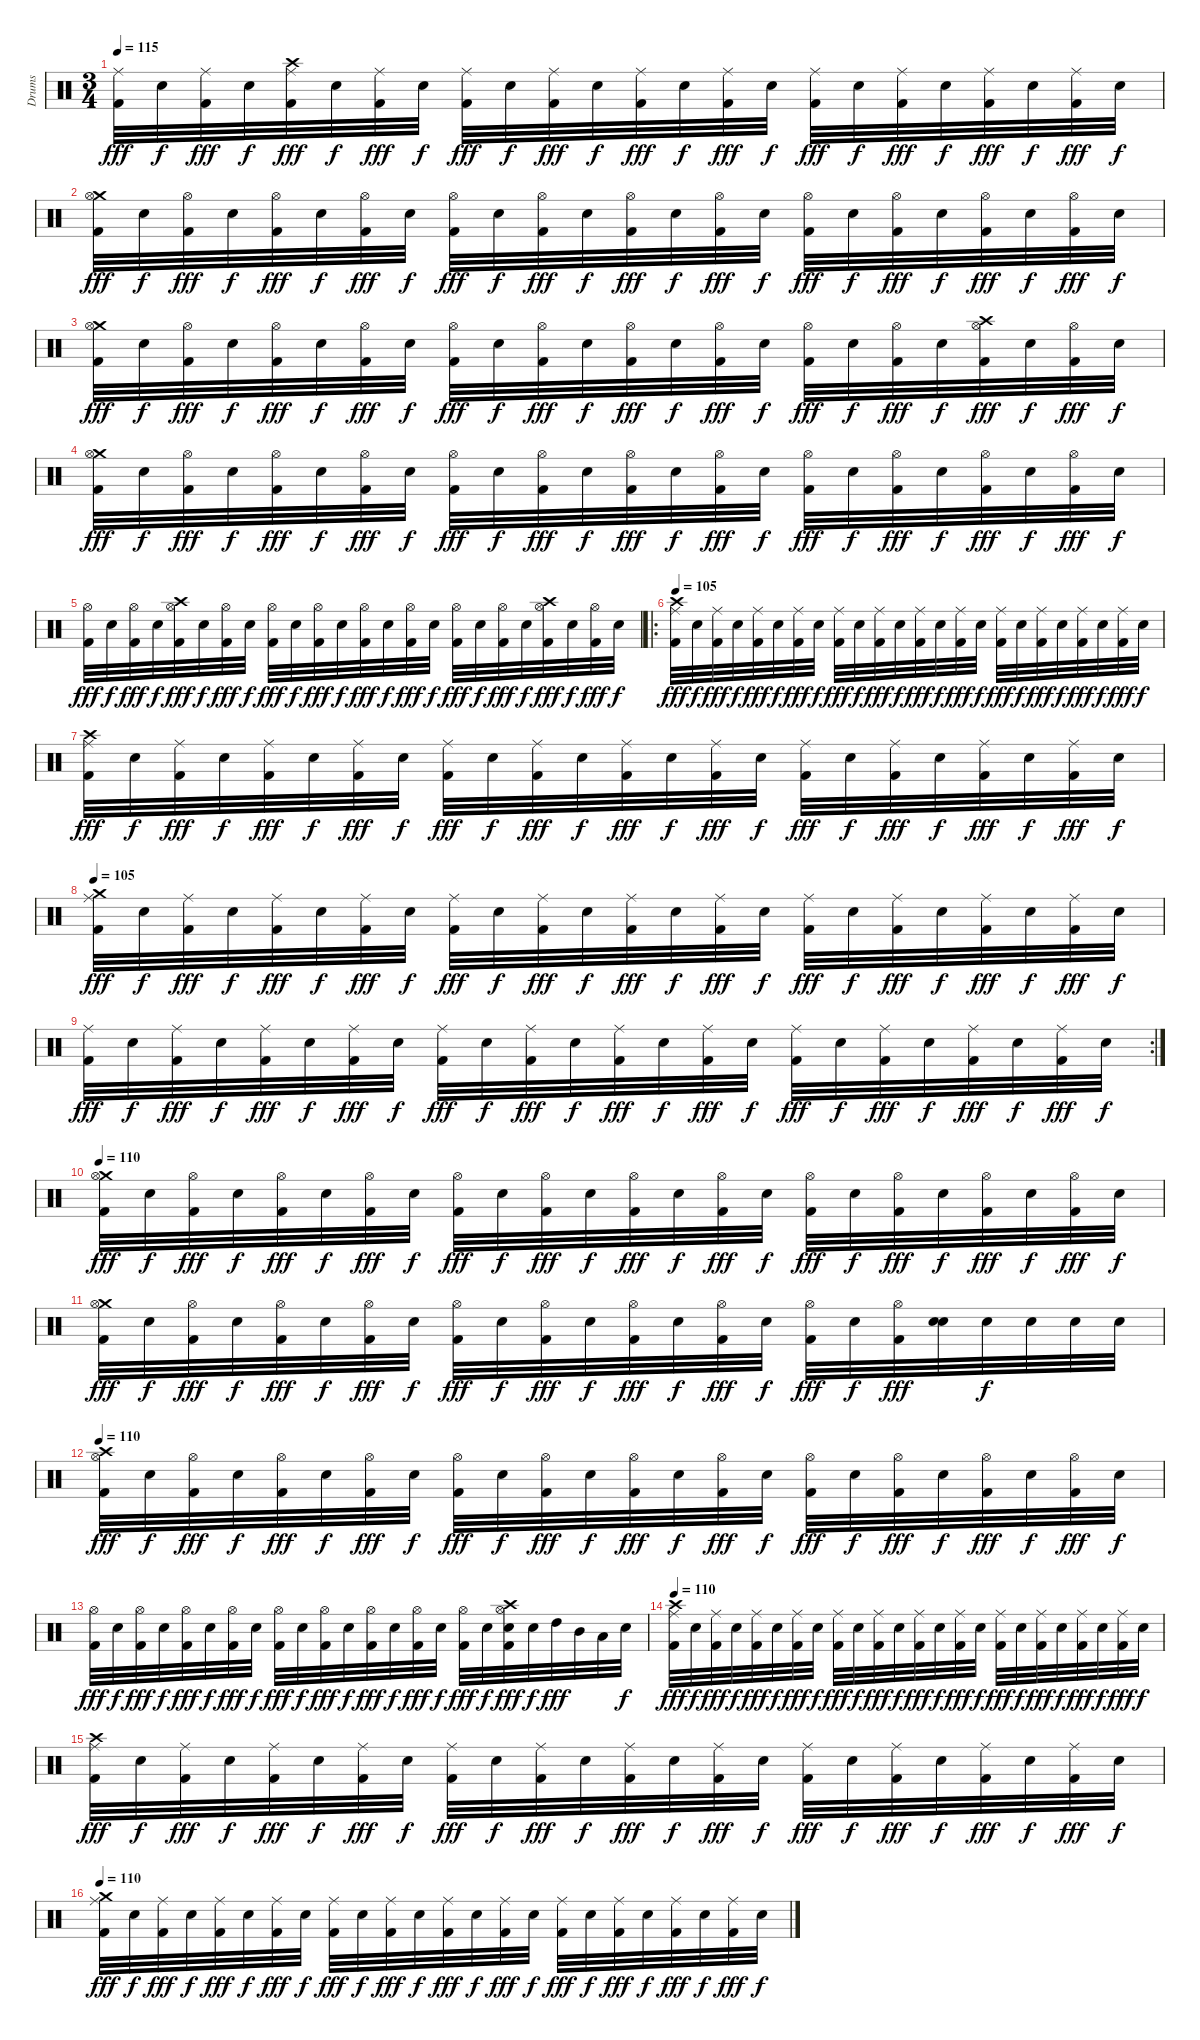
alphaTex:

\track ("Drums" "Drums") {instrument percussion}
\staff {score}
\articulation defaults
\ts (3 4)
\tempo 115
\clef neutral
\ks c
("Ride (middle)" "Kick (hit) 2").32{dy fff} "Electric Snare (hit)".32{dy f} ("Ride (middle)" "Kick (hit) 2").32{dy fff} "Electric Snare (hit)".32{dy f} ("Crash high (hit)" "Ride (middle)" "Kick (hit) 2").32{dy fff} "Electric Snare (hit)".32{dy f} ("Ride (middle)" "Kick (hit) 2").32{dy fff} "Electric Snare (hit)".32{dy f} ("Ride (middle)" "Kick (hit) 2").32{dy fff} "Electric Snare (hit)".32{dy f} ("Ride (middle)" "Kick (hit) 2").32{dy fff} "Electric Snare (hit)".32{dy f} ("Ride (middle)" "Kick (hit) 2").32{dy fff} "Electric Snare (hit)".32{dy f} ("Ride (middle)" "Kick (hit) 2").32{dy fff} "Electric Snare (hit)".32{dy f} ("Ride (middle)" "Kick (hit) 2").32{dy fff} "Electric Snare (hit)".32{dy f} ("Ride (middle)" "Kick (hit) 2").32{dy fff} "Electric Snare (hit)".32{dy f} ("Ride (middle)" "Kick (hit) 2").32{dy fff} "Electric Snare (hit)".32{dy f} ("Ride (middle)" "Kick (hit) 2").32{dy fff} "Electric Snare (hit)".32{dy f} |
("Crash medium (hit)" "Hi-Hat (open)" "Kick (hit) 2").32{dy fff} "Electric Snare (hit)".32{dy f} ("Hi-Hat (open)" "Kick (hit) 2").32{dy fff} "Electric Snare (hit)".32{dy f} ("Hi-Hat (open)" "Kick (hit) 2").32{dy fff} "Electric Snare (hit)".32{dy f} ("Hi-Hat (open)" "Kick (hit) 2").32{dy fff} "Electric Snare (hit)".32{dy f} ("Hi-Hat (open)" "Kick (hit) 2").32{dy fff} "Electric Snare (hit)".32{dy f} ("Hi-Hat (open)" "Kick (hit) 2").32{dy fff} "Electric Snare (hit)".32{dy f} ("Hi-Hat (open)" "Kick (hit) 2").32{dy fff} "Electric Snare (hit)".32{dy f} ("Hi-Hat (open)" "Kick (hit) 2").32{dy fff} "Electric Snare (hit)".32{dy f} ("Hi-Hat (open)" "Kick (hit) 2").32{dy fff} "Electric Snare (hit)".32{dy f} ("Hi-Hat (open)" "Kick (hit) 2").32{dy fff} "Electric Snare (hit)".32{dy f} ("Hi-Hat (open)" "Kick (hit) 2").32{dy fff} "Electric Snare (hit)".32{dy f} ("Hi-Hat (open)" "Kick (hit) 2").32{dy fff} "Electric Snare (hit)".32{dy f} |
("Crash medium (hit)" "Hi-Hat (open)" "Kick (hit) 2").32{dy fff} "Electric Snare (hit)".32{dy f} ("Hi-Hat (open)" "Kick (hit) 2").32{dy fff} "Electric Snare (hit)".32{dy f} ("Hi-Hat (open)" "Kick (hit) 2").32{dy fff} "Electric Snare (hit)".32{dy f} ("Hi-Hat (open)" "Kick (hit) 2").32{dy fff} "Electric Snare (hit)".32{dy f} ("Hi-Hat (open)" "Kick (hit) 2").32{dy fff} "Electric Snare (hit)".32{dy f} ("Hi-Hat (open)" "Kick (hit) 2").32{dy fff} "Electric Snare (hit)".32{dy f} ("Hi-Hat (open)" "Kick (hit) 2").32{dy fff} "Electric Snare (hit)".32{dy f} ("Hi-Hat (open)" "Kick (hit) 2").32{dy fff} "Electric Snare (hit)".32{dy f} ("Hi-Hat (open)" "Kick (hit) 2").32{dy fff} "Electric Snare (hit)".32{dy f} ("Hi-Hat (open)" "Kick (hit) 2").32{dy fff} "Electric Snare (hit)".32{dy f} ("Crash high (hit)" "Hi-Hat (open)" "Kick (hit) 2").32{dy fff} "Electric Snare (hit)".32{dy f} ("Hi-Hat (open)" "Kick (hit) 2").32{dy fff} "Electric Snare (hit)".32{dy f} |
("Crash medium (hit)" "Hi-Hat (open)" "Kick (hit) 2").32{dy fff} "Electric Snare (hit)".32{dy f} ("Hi-Hat (open)" "Kick (hit) 2").32{dy fff} "Electric Snare (hit)".32{dy f} ("Hi-Hat (open)" "Kick (hit) 2").32{dy fff} "Electric Snare (hit)".32{dy f} ("Hi-Hat (open)" "Kick (hit) 2").32{dy fff} "Electric Snare (hit)".32{dy f} ("Hi-Hat (open)" "Kick (hit) 2").32{dy fff} "Electric Snare (hit)".32{dy f} ("Hi-Hat (open)" "Kick (hit) 2").32{dy fff} "Electric Snare (hit)".32{dy f} ("Hi-Hat (open)" "Kick (hit) 2").32{dy fff} "Electric Snare (hit)".32{dy f} ("Hi-Hat (open)" "Kick (hit) 2").32{dy fff} "Electric Snare (hit)".32{dy f} ("Hi-Hat (open)" "Kick (hit) 2").32{dy fff} "Electric Snare (hit)".32{dy f} ("Hi-Hat (open)" "Kick (hit) 2").32{dy fff} "Electric Snare (hit)".32{dy f} ("Hi-Hat (open)" "Kick (hit) 2").32{dy fff} "Electric Snare (hit)".32{dy f} ("Hi-Hat (open)" "Kick (hit) 2").32{dy fff} "Electric Snare (hit)".32{dy f} |
("Hi-Hat (open)" "Kick (hit) 2").32{dy fff} "Electric Snare (hit)".32{dy f} ("Hi-Hat (open)" "Kick (hit) 2").32{dy fff} "Electric Snare (hit)".32{dy f} ("Crash high (hit)" "Hi-Hat (open)" "Kick (hit) 2").32{dy fff} "Electric Snare (hit)".32{dy f} ("Hi-Hat (open)" "Kick (hit) 2").32{dy fff} "Electric Snare (hit)".32{dy f} ("Hi-Hat (open)" "Kick (hit) 2").32{dy fff} "Electric Snare (hit)".32{dy f} ("Hi-Hat (open)" "Kick (hit) 2").32{dy fff} "Electric Snare (hit)".32{dy f} ("Hi-Hat (open)" "Kick (hit) 2").32{dy fff} "Electric Snare (hit)".32{dy f} ("Hi-Hat (open)" "Kick (hit) 2").32{dy fff} "Electric Snare (hit)".32{dy f} ("Hi-Hat (open)" "Kick (hit) 2").32{dy fff} "Electric Snare (hit)".32{dy f} ("Hi-Hat (open)" "Kick (hit) 2").32{dy fff} "Electric Snare (hit)".32{dy f} ("Crash high (hit)" "Hi-Hat (open)" "Kick (hit) 2").32{dy fff} "Electric Snare (hit)".32{dy f} ("Hi-Hat (open)" "Kick (hit) 2").32{dy fff} "Electric Snare (hit)".32{dy f} |
\ro
\tempo 105
("Crash high (hit)" "Ride (middle)" "Kick (hit) 2").32{dy fff} "Electric Snare (hit)".32{dy f} ("Ride (middle)" "Kick (hit) 2").32{dy fff} "Electric Snare (hit)".32{dy f} ("Ride (middle)" "Kick (hit) 2").32{dy fff} "Electric Snare (hit)".32{dy f} ("Ride (middle)" "Kick (hit) 2").32{dy fff} "Electric Snare (hit)".32{dy f} ("Ride (middle)" "Kick (hit) 2").32{dy fff} "Electric Snare (hit)".32{dy f} ("Ride (middle)" "Kick (hit) 2").32{dy fff} "Electric Snare (hit)".32{dy f} ("Ride (middle)" "Kick (hit) 2").32{dy fff} "Electric Snare (hit)".32{dy f} ("Ride (middle)" "Kick (hit) 2").32{dy fff} "Electric Snare (hit)".32{dy f} ("Ride (middle)" "Kick (hit) 2").32{dy fff} "Electric Snare (hit)".32{dy f} ("Ride (middle)" "Kick (hit) 2").32{dy fff} "Electric Snare (hit)".32{dy f} ("Ride (middle)" "Kick (hit) 2").32{dy fff} "Electric Snare (hit)".32{dy f} ("Ride (middle)" "Kick (hit) 2").32{dy fff} "Electric Snare (hit)".32{dy f} |
("Crash high (hit)" "Ride (middle)" "Kick (hit) 2").32{dy fff} "Electric Snare (hit)".32{dy f} ("Ride (middle)" "Kick (hit) 2").32{dy fff} "Electric Snare (hit)".32{dy f} ("Ride (middle)" "Kick (hit) 2").32{dy fff} "Electric Snare (hit)".32{dy f} ("Ride (middle)" "Kick (hit) 2").32{dy fff} "Electric Snare (hit)".32{dy f} ("Ride (middle)" "Kick (hit) 2").32{dy fff} "Electric Snare (hit)".32{dy f} ("Ride (middle)" "Kick (hit) 2").32{dy fff} "Electric Snare (hit)".32{dy f} ("Ride (middle)" "Kick (hit) 2").32{dy fff} "Electric Snare (hit)".32{dy f} ("Ride (middle)" "Kick (hit) 2").32{dy fff} "Electric Snare (hit)".32{dy f} ("Ride (middle)" "Kick (hit) 2").32{dy fff} "Electric Snare (hit)".32{dy f} ("Ride (middle)" "Kick (hit) 2").32{dy fff} "Electric Snare (hit)".32{dy f} ("Ride (middle)" "Kick (hit) 2").32{dy fff} "Electric Snare (hit)".32{dy f} ("Ride (middle)" "Kick (hit) 2").32{dy fff} "Electric Snare (hit)".32{dy f} |
\tempo 105
("Crash medium (hit)" "Ride (middle)" "Kick (hit) 2").32{dy fff} "Electric Snare (hit)".32{dy f} ("Ride (middle)" "Kick (hit) 2").32{dy fff} "Electric Snare (hit)".32{dy f} ("Ride (middle)" "Kick (hit) 2").32{dy fff} "Electric Snare (hit)".32{dy f} ("Ride (middle)" "Kick (hit) 2").32{dy fff} "Electric Snare (hit)".32{dy f} ("Ride (middle)" "Kick (hit) 2").32{dy fff} "Electric Snare (hit)".32{dy f} ("Ride (middle)" "Kick (hit) 2").32{dy fff} "Electric Snare (hit)".32{dy f} ("Ride (middle)" "Kick (hit) 2").32{dy fff} "Electric Snare (hit)".32{dy f} ("Ride (middle)" "Kick (hit) 2").32{dy fff} "Electric Snare (hit)".32{dy f} ("Ride (middle)" "Kick (hit) 2").32{dy fff} "Electric Snare (hit)".32{dy f} ("Ride (middle)" "Kick (hit) 2").32{dy fff} "Electric Snare (hit)".32{dy f} ("Ride (middle)" "Kick (hit) 2").32{dy fff} "Electric Snare (hit)".32{dy f} ("Ride (middle)" "Kick (hit) 2").32{dy fff} "Electric Snare (hit)".32{dy f} |
\rc 2
("Ride (middle)" "Kick (hit) 2").32{dy fff} "Electric Snare (hit)".32{dy f} ("Ride (middle)" "Kick (hit) 2").32{dy fff} "Electric Snare (hit)".32{dy f} ("Ride (middle)" "Kick (hit) 2").32{dy fff} "Electric Snare (hit)".32{dy f} ("Ride (middle)" "Kick (hit) 2").32{dy fff} "Electric Snare (hit)".32{dy f} ("Ride (middle)" "Kick (hit) 2").32{dy fff} "Electric Snare (hit)".32{dy f} ("Ride (middle)" "Kick (hit) 2").32{dy fff} "Electric Snare (hit)".32{dy f} ("Ride (middle)" "Kick (hit) 2").32{dy fff} "Electric Snare (hit)".32{dy f} ("Ride (middle)" "Kick (hit) 2").32{dy fff} "Electric Snare (hit)".32{dy f} ("Ride (middle)" "Kick (hit) 2").32{dy fff} "Electric Snare (hit)".32{dy f} ("Ride (middle)" "Kick (hit) 2").32{dy fff} "Electric Snare (hit)".32{dy f} ("Ride (middle)" "Kick (hit) 2").32{dy fff} "Electric Snare (hit)".32{dy f} ("Ride (middle)" "Kick (hit) 2").32{dy fff} "Electric Snare (hit)".32{dy f} |
\tempo 110
("Crash medium (hit)" "Hi-Hat (open)" "Kick (hit) 2").32{dy fff} "Electric Snare (hit)".32{dy f} ("Hi-Hat (open)" "Kick (hit) 2").32{dy fff} "Electric Snare (hit)".32{dy f} ("Hi-Hat (open)" "Kick (hit) 2").32{dy fff} "Electric Snare (hit)".32{dy f} ("Hi-Hat (open)" "Kick (hit) 2").32{dy fff} "Electric Snare (hit)".32{dy f} ("Hi-Hat (open)" "Kick (hit) 2").32{dy fff} "Electric Snare (hit)".32{dy f} ("Hi-Hat (open)" "Kick (hit) 2").32{dy fff} "Electric Snare (hit)".32{dy f} ("Hi-Hat (open)" "Kick (hit) 2").32{dy fff} "Electric Snare (hit)".32{dy f} ("Hi-Hat (open)" "Kick (hit) 2").32{dy fff} "Electric Snare (hit)".32{dy f} ("Hi-Hat (open)" "Kick (hit) 2").32{dy fff} "Electric Snare (hit)".32{dy f} ("Hi-Hat (open)" "Kick (hit) 2").32{dy fff} "Electric Snare (hit)".32{dy f} ("Hi-Hat (open)" "Kick (hit) 2").32{dy fff} "Electric Snare (hit)".32{dy f} ("Hi-Hat (open)" "Kick (hit) 2").32{dy fff} "Electric Snare (hit)".32{dy f} |
("Crash medium (hit)" "Hi-Hat (open)" "Kick (hit) 2").32{dy fff} "Electric Snare (hit)".32{dy f} ("Hi-Hat (open)" "Kick (hit) 2").32{dy fff} "Electric Snare (hit)".32{dy f} ("Hi-Hat (open)" "Kick (hit) 2").32{dy fff} "Electric Snare (hit)".32{dy f} ("Hi-Hat (open)" "Kick (hit) 2").32{dy fff} "Electric Snare (hit)".32{dy f} ("Hi-Hat (open)" "Kick (hit) 2").32{dy fff} "Electric Snare (hit)".32{dy f} ("Hi-Hat (open)" "Kick (hit) 2").32{dy fff} "Electric Snare (hit)".32{dy f} ("Hi-Hat (open)" "Kick (hit) 2").32{dy fff} "Electric Snare (hit)".32{dy f} ("Hi-Hat (open)" "Kick (hit) 2").32{dy fff} "Electric Snare (hit)".32{dy f} ("Hi-Hat (open)" "Kick (hit) 2").32{dy fff} "Electric Snare (hit)".32{dy f} ("Hi-Hat (open)" "Kick (hit) 2").32{dy fff} ("Electric Snare (hit)" "Electric Snare (hit)").32 "Electric Snare (hit)".32{dy f} "Electric Snare (hit)".32 "Electric Snare (hit)".32 "Electric Snare (hit)".32 |
\tempo 110
("Crash high (hit)" "Hi-Hat (open)" "Kick (hit) 2").32{dy fff} "Electric Snare (hit)".32{dy f} ("Hi-Hat (open)" "Kick (hit) 2").32{dy fff} "Electric Snare (hit)".32{dy f} ("Hi-Hat (open)" "Kick (hit) 2").32{dy fff} "Electric Snare (hit)".32{dy f} ("Hi-Hat (open)" "Kick (hit) 2").32{dy fff} "Electric Snare (hit)".32{dy f} ("Hi-Hat (open)" "Kick (hit) 2").32{dy fff} "Electric Snare (hit)".32{dy f} ("Hi-Hat (open)" "Kick (hit) 2").32{dy fff} "Electric Snare (hit)".32{dy f} ("Hi-Hat (open)" "Kick (hit) 2").32{dy fff} "Electric Snare (hit)".32{dy f} ("Hi-Hat (open)" "Kick (hit) 2").32{dy fff} "Electric Snare (hit)".32{dy f} ("Hi-Hat (open)" "Kick (hit) 2").32{dy fff} "Electric Snare (hit)".32{dy f} ("Hi-Hat (open)" "Kick (hit) 2").32{dy fff} "Electric Snare (hit)".32{dy f} ("Hi-Hat (open)" "Kick (hit) 2").32{dy fff} "Electric Snare (hit)".32{dy f} ("Hi-Hat (open)" "Kick (hit) 2").32{dy fff} "Electric Snare (hit)".32{dy f} |
("Hi-Hat (open)" "Kick (hit) 2").32{dy fff} "Electric Snare (hit)".32{dy f} ("Hi-Hat (open)" "Kick (hit) 2").32{dy fff} "Electric Snare (hit)".32{dy f} ("Hi-Hat (open)" "Kick (hit) 2").32{dy fff} "Electric Snare (hit)".32{dy f} ("Hi-Hat (open)" "Kick (hit) 2").32{dy fff} "Electric Snare (hit)".32{dy f} ("Hi-Hat (open)" "Kick (hit) 2").32{dy fff} "Electric Snare (hit)".32{dy f} ("Hi-Hat (open)" "Kick (hit) 2").32{dy fff} "Electric Snare (hit)".32{dy f} ("Hi-Hat (open)" "Kick (hit) 2").32{dy fff} "Electric Snare (hit)".32{dy f} ("Hi-Hat (open)" "Kick (hit) 2").32{dy fff} "Electric Snare (hit)".32{dy f} ("Hi-Hat (open)" "Kick (hit) 2").32{dy fff} "Electric Snare (hit)".32{dy f} ("Crash high (hit)" "Hi-Hat (open)" "Electric Snare (hit)" "Kick (hit) 2").32{dy fff} "Electric Snare (hit)".32{dy f} "High Tom (hit)".32{dy fff} "Mid Tom (hit)".32 "Low Tom (hit)".32 "Electric Snare (hit)".32{dy f} |
\tempo 110
("Crash high (hit)" "Ride (middle)" "Kick (hit) 2").32{dy fff} "Electric Snare (hit)".32{dy f} ("Ride (middle)" "Kick (hit) 2").32{dy fff} "Electric Snare (hit)".32{dy f} ("Ride (middle)" "Kick (hit) 2").32{dy fff} "Electric Snare (hit)".32{dy f} ("Ride (middle)" "Kick (hit) 2").32{dy fff} "Electric Snare (hit)".32{dy f} ("Ride (middle)" "Kick (hit) 2").32{dy fff} "Electric Snare (hit)".32{dy f} ("Ride (middle)" "Kick (hit) 2").32{dy fff} "Electric Snare (hit)".32{dy f} ("Ride (middle)" "Kick (hit) 2").32{dy fff} "Electric Snare (hit)".32{dy f} ("Ride (middle)" "Kick (hit) 2").32{dy fff} "Electric Snare (hit)".32{dy f} ("Ride (middle)" "Kick (hit) 2").32{dy fff} "Electric Snare (hit)".32{dy f} ("Ride (middle)" "Kick (hit) 2").32{dy fff} "Electric Snare (hit)".32{dy f} ("Ride (middle)" "Kick (hit) 2").32{dy fff} "Electric Snare (hit)".32{dy f} ("Ride (middle)" "Kick (hit) 2").32{dy fff} "Electric Snare (hit)".32{dy f} |
("Crash high (hit)" "Ride (middle)" "Kick (hit) 2").32{dy fff} "Electric Snare (hit)".32{dy f} ("Ride (middle)" "Kick (hit) 2").32{dy fff} "Electric Snare (hit)".32{dy f} ("Ride (middle)" "Kick (hit) 2").32{dy fff} "Electric Snare (hit)".32{dy f} ("Ride (middle)" "Kick (hit) 2").32{dy fff} "Electric Snare (hit)".32{dy f} ("Ride (middle)" "Kick (hit) 2").32{dy fff} "Electric Snare (hit)".32{dy f} ("Ride (middle)" "Kick (hit) 2").32{dy fff} "Electric Snare (hit)".32{dy f} ("Ride (middle)" "Kick (hit) 2").32{dy fff} "Electric Snare (hit)".32{dy f} ("Ride (middle)" "Kick (hit) 2").32{dy fff} "Electric Snare (hit)".32{dy f} ("Ride (middle)" "Kick (hit) 2").32{dy fff} "Electric Snare (hit)".32{dy f} ("Ride (middle)" "Kick (hit) 2").32{dy fff} "Electric Snare (hit)".32{dy f} ("Ride (middle)" "Kick (hit) 2").32{dy fff} "Electric Snare (hit)".32{dy f} ("Ride (middle)" "Kick (hit) 2").32{dy fff} "Electric Snare (hit)".32{dy f} |
\tempo 110
("Crash medium (hit)" "Ride (middle)" "Kick (hit) 2").32{dy fff} "Electric Snare (hit)".32{dy f} ("Ride (middle)" "Kick (hit) 2").32{dy fff} "Electric Snare (hit)".32{dy f} ("Ride (middle)" "Kick (hit) 2").32{dy fff} "Electric Snare (hit)".32{dy f} ("Ride (middle)" "Kick (hit) 2").32{dy fff} "Electric Snare (hit)".32{dy f} ("Ride (middle)" "Kick (hit) 2").32{dy fff} "Electric Snare (hit)".32{dy f} ("Ride (middle)" "Kick (hit) 2").32{dy fff} "Electric Snare (hit)".32{dy f} ("Ride (middle)" "Kick (hit) 2").32{dy fff} "Electric Snare (hit)".32{dy f} ("Ride (middle)" "Kick (hit) 2").32{dy fff} "Electric Snare (hit)".32{dy f} ("Ride (middle)" "Kick (hit) 2").32{dy fff} "Electric Snare (hit)".32{dy f} ("Ride (middle)" "Kick (hit) 2").32{dy fff} "Electric Snare (hit)".32{dy f} ("Ride (middle)" "Kick (hit) 2").32{dy fff} "Electric Snare (hit)".32{dy f} ("Ride (middle)" "Kick (hit) 2").32{dy fff} "Electric Snare (hit)".32{dy f}
